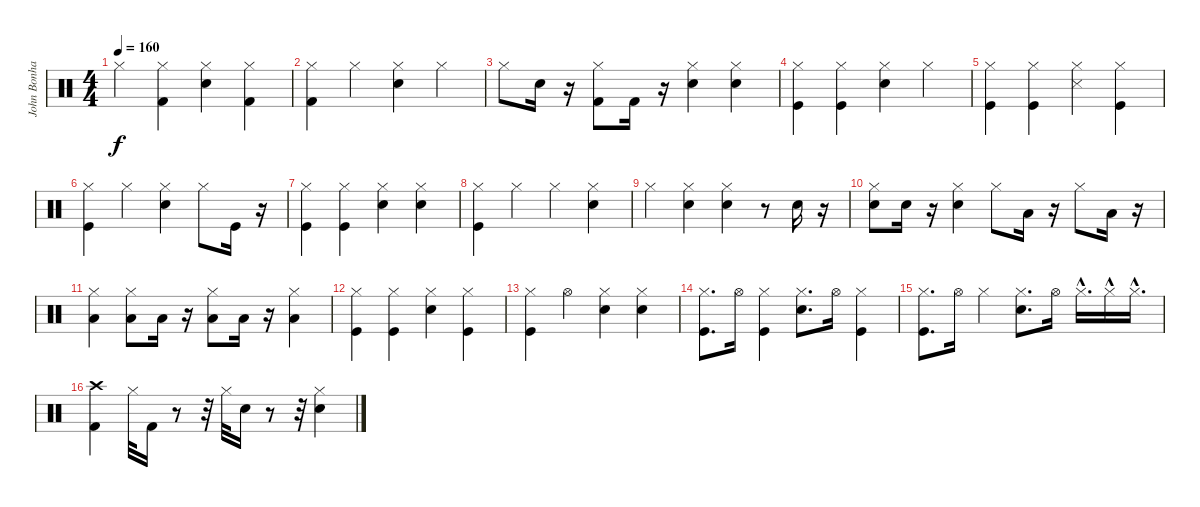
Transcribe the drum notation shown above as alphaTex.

\track ("John Bonham" "John Bonha") {instrument percussion}
\staff {score}
\articulation defaults
\ts (4 4)
\tempo 160
\clef neutral
\ks c "Hi-Hat (closed)".4{dy f}
("Hi-Hat (closed)" "Kick (hit) 2").4 ("Hi-Hat (closed)" "Snare (hit) 2").4 ("Hi-Hat (closed)" "Kick (hit) 2").4 |
("Kick (hit) 2" "Hi-Hat (closed)").4 "Hi-Hat (closed)".4 ("Snare (hit) 2" "Hi-Hat (closed)").4 "Hi-Hat (closed)".4 |
"Hi-Hat (closed)".8 "Snare (hit) 2".16 r.16 ("Kick (hit) 2" "Hi-Hat (closed)").8 "Kick (hit) 2".16 r.16 ("Snare (hit) 2" "Hi-Hat (closed)").4 ("Snare (hit) 2" "Hi-Hat (closed)").4 |
("Kick (hit)" "Hi-Hat (closed)").4 ("Kick (hit)" "Hi-Hat (closed)").4 ("Snare (hit) 2" "Hi-Hat (closed)").4 "Hi-Hat (closed)".4 |
("Kick (hit)" "Hi-Hat (closed)").4 ("Kick (hit)" "Hi-Hat (closed)").4 ("Snare (side stick) 3" "Hi-Hat (closed)").4 ("Kick (hit)" "Hi-Hat (closed)").4 |
("Kick (hit)" "Hi-Hat (closed)").4 "Hi-Hat (closed)".4 ("Snare (hit) 2" "Hi-Hat (closed)").4 "Hi-Hat (closed)".8 "Kick (hit)".16 r.16 |
("Kick (hit)" "Hi-Hat (closed)").4 ("Kick (hit)" "Hi-Hat (closed)").4 ("Snare (hit) 2" "Hi-Hat (closed)").4 ("Snare (hit) 2" "Hi-Hat (closed)").4 |
("Kick (hit)" "Hi-Hat (closed)").4 "Hi-Hat (closed)".4 "Hi-Hat (closed)".4 ("Snare (hit) 2" "Hi-Hat (closed)").4 |
"Hi-Hat (closed)".4 ("Snare (hit) 2" "Hi-Hat (closed)").4 ("Snare (hit) 2" "Hi-Hat (closed)").4 r.8 "Snare (hit) 2".16 r.16 |
("Snare (hit) 2" "Hi-Hat (closed)").8 "Snare (hit) 2".16 r.16 ("Snare (hit) 2" "Hi-Hat (closed)").4 "Hi-Hat (closed)".8 "Low Tom (hit)".16 r.16 "Hi-Hat (closed)".8 "Low Tom (hit)".16 r.16 |
("Hi-Hat (closed)" "Low Tom (hit)").4 ("Low Tom (hit)" "Hi-Hat (closed)").8 "Low Tom (hit)".16 r.16 ("Low Tom (hit)" "Hi-Hat (closed)").8 "Low Tom (hit)".16 r.16 ("Low Tom (hit)" "Hi-Hat (closed)").4 |
("Kick (hit)" "Hi-Hat (closed)").4 ("Kick (hit)" "Hi-Hat (closed)").4 ("Snare (hit) 2" "Hi-Hat (closed)").4 ("Kick (hit)" "Hi-Hat (closed)").4 |
("Kick (hit)" "Hi-Hat (closed)").4 "Hi-Hat (open)".4 ("Snare (hit) 2" "Hi-Hat (closed)").4 ("Snare (hit) 2" "Hi-Hat (closed)").4 |
("Kick (hit)" "Hi-Hat (closed)").8{d} "Hi-Hat (open)".16 ("Kick (hit)" "Hi-Hat (closed)").4 ("Snare (hit) 2" "Hi-Hat (closed)").8{d} "Hi-Hat (open)".16 ("Kick (hit)" "Hi-Hat (closed)").4 |
("Kick (hit)" "Hi-Hat (closed)").8{d} "Hi-Hat (open)".16 "Hi-Hat (closed)".4 ("Snare (hit) 2" "Hi-Hat (closed)").8{d} "Hi-Hat (open)".16 "Hi-Hat (closed)"{hac}.16{d} "Hi-Hat (closed)"{hac}.16 "Hi-Hat (closed)"{hac}.16{d} |
("Kick (hit) 2" "Crash high (hit)").4 "Hi-Hat (closed)".32 "Kick (hit) 2".16 r.8 r.32 "Hi-Hat (closed)".32 "Snare (hit) 2".16 r.8 r.32 ("Hi-Hat (closed)" "Snare (hit) 2").4
